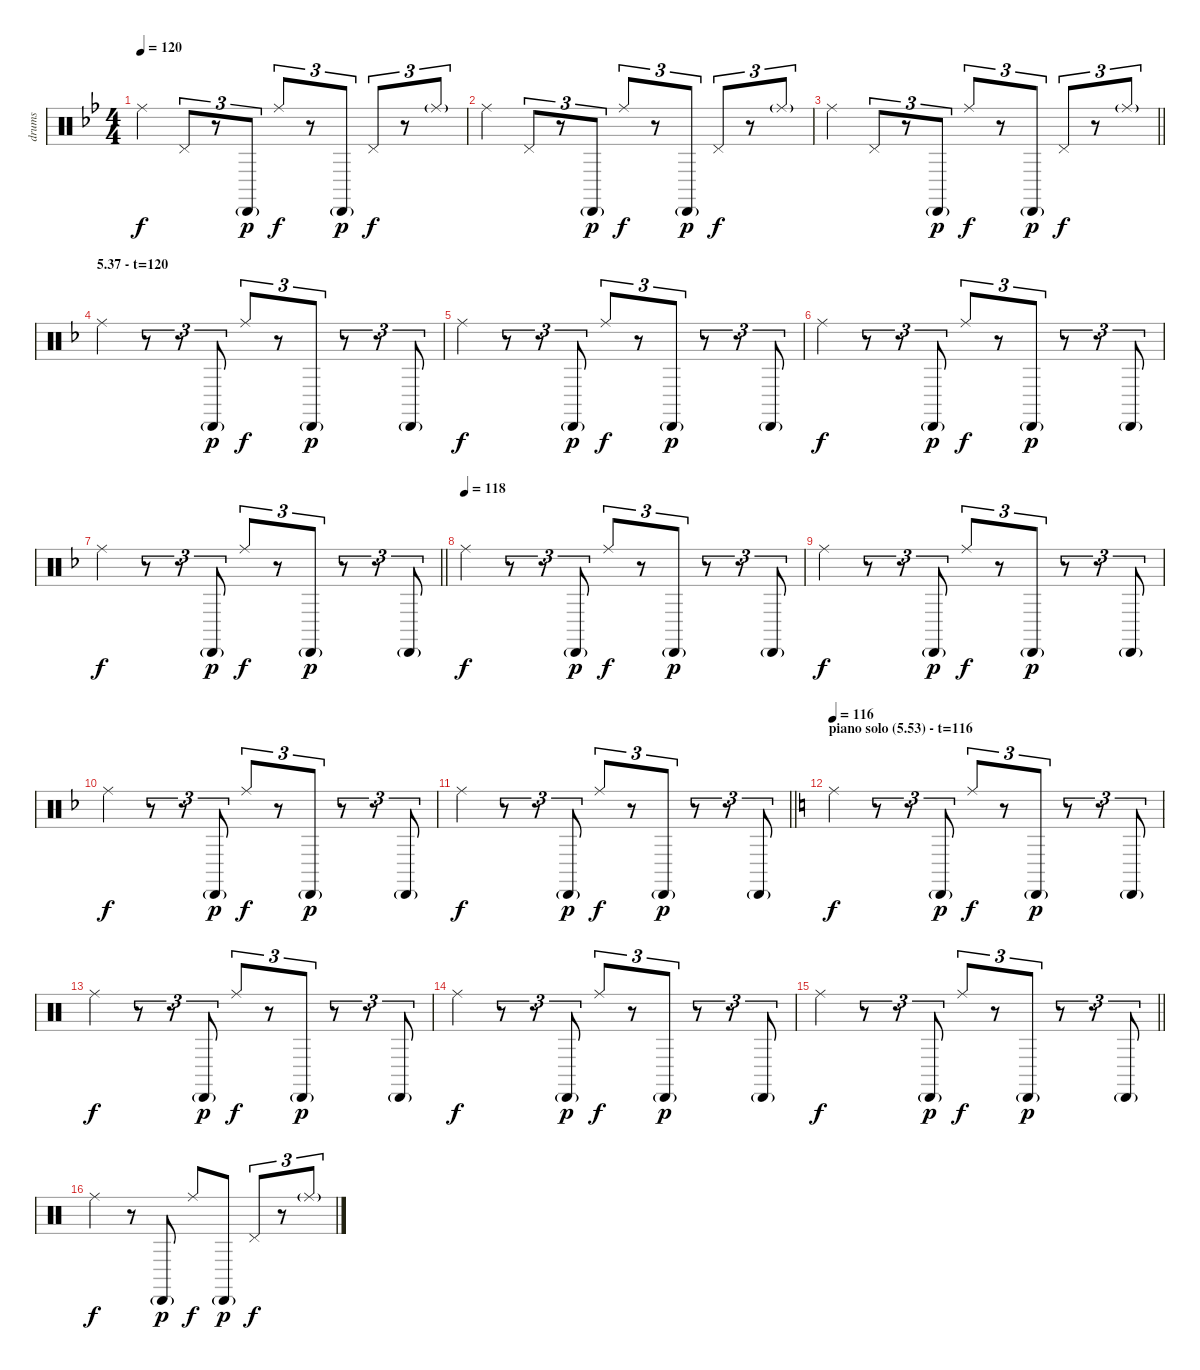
\track ("drums" "drums") {instrument percussion}
\staff {score}
\articulation defaults
\ts (4 4)
\tempo 120
\clef neutral
\ks bb "Ride (middle)".4{dy f} "Pedal Hi-Hat (hit)".8{tu (3 2)}
r.8{tu (3 2)} "Cabasa (hit)"{g}.8{tu (3 2) dy p} "Ride (middle)".8{tu (3 2) dy f} r.8{tu (3 2)} "Cabasa (hit)"{g}.8{tu (3 2) dy p} "Pedal Hi-Hat (hit)".8{tu (3 2) dy f} r.8{tu (3 2)} "Ride (middle)"{g}.8{tu (3 2)} |
"Ride (middle)".4 "Pedal Hi-Hat (hit)".8{tu (3 2)} r.8{tu (3 2)} "Cabasa (hit)"{g}.8{tu (3 2) dy p} "Ride (middle)".8{tu (3 2) dy f} r.8{tu (3 2)} "Cabasa (hit)"{g}.8{tu (3 2) dy p} "Pedal Hi-Hat (hit)".8{tu (3 2) dy f} r.8{tu (3 2)} "Ride (middle)"{g}.8{tu (3 2)} |
\barLineRight lightlight "Ride (middle)".4 "Pedal Hi-Hat (hit)".8{tu (3 2)}
r.8{tu (3 2)} "Cabasa (hit)"{g}.8{tu (3 2) dy p} "Ride (middle)".8{tu (3 2) dy f} r.8{tu (3 2)} "Cabasa (hit)"{g}.8{tu (3 2) dy p} "Pedal Hi-Hat (hit)".8{tu (3 2) dy f} r.8{tu (3 2)} "Ride (middle)"{g}.8{tu (3 2)} |
\section ("" "5.37 - t=120")
\ks f "Ride (middle)".4
r.8{tu (3 2)} r.8{tu (3 2)} "Cabasa (hit)"{g}.8{tu (3 2) dy p} "Ride (middle)".8{tu (3 2) dy f} r.8{tu (3 2)} "Cabasa (hit)"{g}.8{tu (3 2) dy p} r.8{tu (3 2)} r.8{tu (3 2)} "Cabasa (hit)"{g}.8{tu (3 2)} |
"Ride (middle)".4{dy f} r.8{tu (3 2)} r.8{tu (3 2)} "Cabasa (hit)"{g}.8{tu (3 2) dy p} "Ride (middle)".8{tu (3 2) dy f} r.8{tu (3 2)} "Cabasa (hit)"{g}.8{tu (3 2) dy p} r.8{tu (3 2)} r.8{tu (3 2)} "Cabasa (hit)"{g}.8{tu (3 2)} |
"Ride (middle)".4{dy f} r.8{tu (3 2)} r.8{tu (3 2)} "Cabasa (hit)"{g}.8{tu (3 2) dy p} "Ride (middle)".8{tu (3 2) dy f} r.8{tu (3 2)} "Cabasa (hit)"{g}.8{tu (3 2) dy p} r.8{tu (3 2)} r.8{tu (3 2)} "Cabasa (hit)"{g}.8{tu (3 2)} |
\barLineRight lightlight "Ride (middle)".4{dy f}
r.8{tu (3 2)} r.8{tu (3 2)} "Cabasa (hit)"{g}.8{tu (3 2) dy p} "Ride (middle)".8{tu (3 2) dy f} r.8{tu (3 2)} "Cabasa (hit)"{g}.8{tu (3 2) dy p} r.8{tu (3 2)} r.8{tu (3 2)} "Cabasa (hit)"{g}.8{tu (3 2)} |
\tempo (118)
"Ride (middle)".4{dy f} r.8{tu (3 2)} r.8{tu (3 2)} "Cabasa (hit)"{g}.8{tu (3 2) dy p} "Ride (middle)".8{tu (3 2) dy f} r.8{tu (3 2)} "Cabasa (hit)"{g}.8{tu (3 2) dy p} r.8{tu (3 2)} r.8{tu (3 2)} "Cabasa (hit)"{g}.8{tu (3 2)} |
"Ride (middle)".4{dy f} r.8{tu (3 2)} r.8{tu (3 2)} "Cabasa (hit)"{g}.8{tu (3 2) dy p} "Ride (middle)".8{tu (3 2) dy f} r.8{tu (3 2)} "Cabasa (hit)"{g}.8{tu (3 2) dy p} r.8{tu (3 2)} r.8{tu (3 2)} "Cabasa (hit)"{g}.8{tu (3 2)} |
"Ride (middle)".4{dy f} r.8{tu (3 2)} r.8{tu (3 2)} "Cabasa (hit)"{g}.8{tu (3 2) dy p} "Ride (middle)".8{tu (3 2) dy f} r.8{tu (3 2)} "Cabasa (hit)"{g}.8{tu (3 2) dy p} r.8{tu (3 2)} r.8{tu (3 2)} "Cabasa (hit)"{g}.8{tu (3 2)} |
\barLineRight lightlight "Ride (middle)".4{dy f}
r.8{tu (3 2)} r.8{tu (3 2)} "Cabasa (hit)"{g}.8{tu (3 2) dy p} "Ride (middle)".8{tu (3 2) dy f} r.8{tu (3 2)} "Cabasa (hit)"{g}.8{tu (3 2) dy p} r.8{tu (3 2)} r.8{tu (3 2)} "Cabasa (hit)"{g}.8{tu (3 2)} |
\section ("" "piano solo (5.53) - t=116")
\tempo 116
\ks c "Ride (middle)".4{dy f}
r.8{tu (3 2)} r.8{tu (3 2)} "Cabasa (hit)"{g}.8{tu (3 2) dy p} "Ride (middle)".8{tu (3 2) dy f} r.8{tu (3 2)} "Cabasa (hit)"{g}.8{tu (3 2) dy p} r.8{tu (3 2)} r.8{tu (3 2)} "Cabasa (hit)"{g}.8{tu (3 2)} |
"Ride (middle)".4{dy f} r.8{tu (3 2)} r.8{tu (3 2)} "Cabasa (hit)"{g}.8{tu (3 2) dy p} "Ride (middle)".8{tu (3 2) dy f} r.8{tu (3 2)} "Cabasa (hit)"{g}.8{tu (3 2) dy p} r.8{tu (3 2)} r.8{tu (3 2)} "Cabasa (hit)"{g}.8{tu (3 2)} |
"Ride (middle)".4{dy f} r.8{tu (3 2)} r.8{tu (3 2)} "Cabasa (hit)"{g}.8{tu (3 2) dy p} "Ride (middle)".8{tu (3 2) dy f} r.8{tu (3 2)} "Cabasa (hit)"{g}.8{tu (3 2) dy p} r.8{tu (3 2)} r.8{tu (3 2)} "Cabasa (hit)"{g}.8{tu (3 2)} |
\barLineRight lightlight "Ride (middle)".4{dy f}
r.8{tu (3 2)} r.8{tu (3 2)} "Cabasa (hit)"{g}.8{tu (3 2) dy p} "Ride (middle)".8{tu (3 2) dy f} r.8{tu (3 2)} "Cabasa (hit)"{g}.8{tu (3 2) dy p} r.8{tu (3 2)} r.8{tu (3 2)} "Cabasa (hit)"{g}.8{tu (3 2)} |
"Ride (middle)".4{dy f} r.8 "Cabasa (hit)"{g}.8{dy p} "Ride (middle)".8{dy f} "Cabasa (hit)"{g}.8{dy p} "Pedal Hi-Hat (hit)".8{tu (3 2) dy f} r.8{tu (3 2)} "Ride (middle)"{g}.8{tu (3 2)}
